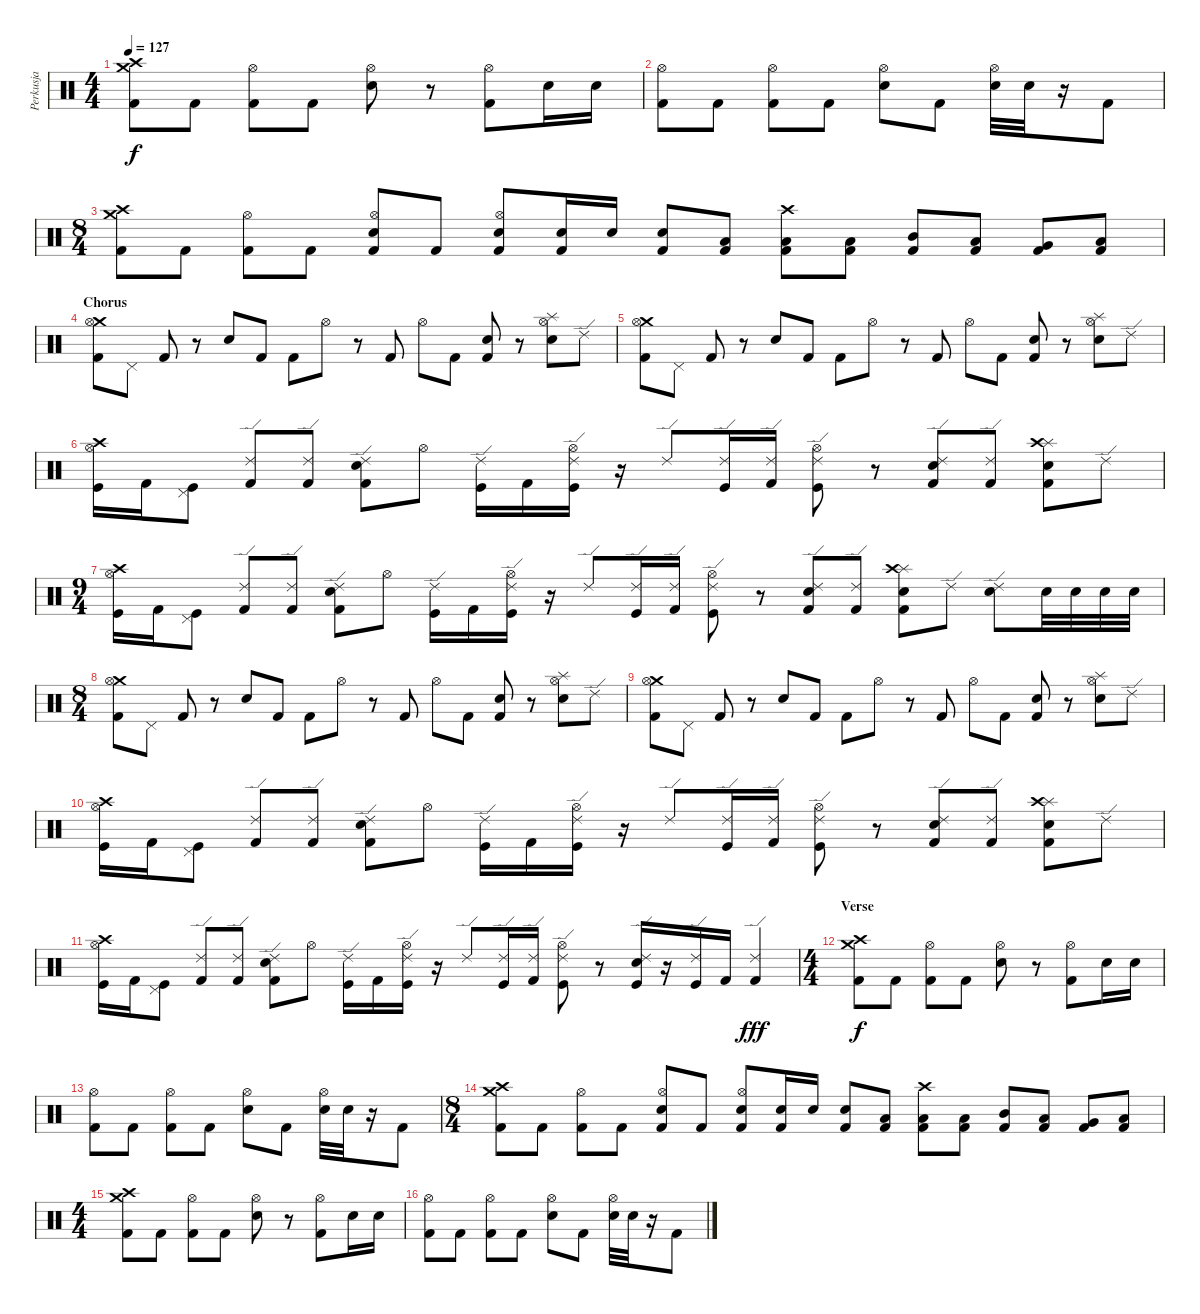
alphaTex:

\track ("Perkusja" "Perkusja") {instrument percussion}
\staff {score}
\articulation defaults
\ts (4 4)
\tempo 127
\clef neutral
\ks c
("Crash medium (hit)" "Crash high (hit)" "Kick (hit) 2").8{dy f} "Kick (hit) 2".8 ("Hi-Hat (open)" "Kick (hit) 2").8 "Kick (hit) 2".8 ("Hi-Hat (open)" "Electric Snare (hit)").8 r.8 ("Hi-Hat (open)" "Kick (hit) 2").8 "Electric Snare (hit)".16 "Electric Snare (hit)".16 |
("Hi-Hat (open)" "Kick (hit) 2").8 "Kick (hit) 2".8 ("Hi-Hat (open)" "Kick (hit) 2").8 "Kick (hit) 2".8 ("Hi-Hat (open)" "Electric Snare (hit)").8 "Kick (hit) 2".8 ("Hi-Hat (open)" "Electric Snare (hit)").32 "Electric Snare (hit)".32 r.16 "Kick (hit) 2".8 |
\ts (8 4)
("Crash medium (hit)" "Crash high (hit)" "Kick (hit) 2").8 "Kick (hit) 2".8 ("Hi-Hat (open)" "Kick (hit) 2").8 "Kick (hit) 2".8 ("Hi-Hat (open)" "Electric Snare (hit)" "Kick (hit) 2").8 "Kick (hit) 2".8 ("Hi-Hat (open)" "Electric Snare (hit)" "Kick (hit) 2").8 ("Electric Snare (hit)" "Kick (hit) 2").16 "Electric Snare (hit)".16 ("Electric Snare (hit)" "Kick (hit) 2").8 ("Low Floor Tom (hit)" "Kick (hit) 2").8 ("Crash high (hit)" "Low Floor Tom (hit)" "Kick (hit) 2").8 ("Low Floor Tom (hit)" "Kick (hit) 2").8 ("Mid Tom (hit)" "Kick (hit) 2").8 ("Low Tom (hit)" "Kick (hit) 2").8 ("Very Low Tom (hit)" "Kick (hit) 2").8 ("Low Floor Tom (hit)" "Kick (hit) 2").8 |
\section ("" "Chorus")
("Crash medium (hit)" "Hi-Hat (open)" "Kick (hit) 2").8 "Pedal Hi-Hat (hit)".8 "Kick (hit) 2".8 r.8 "Electric Snare (hit)".8 "Kick (hit) 2".8 "Kick (hit) 2".8 "Hi-Hat (open)".8 r.8 "Kick (hit) 2".8 "Hi-Hat (open)".8 "Kick (hit) 2".8 ("Electric Snare (hit)" "Kick (hit) 2").8 r.8 ("Splash (hit)" "Hi-Hat (open)" "Electric Snare (hit)").8 "Ride (edge) 2".8 |
("Crash medium (hit)" "Hi-Hat (open)" "Kick (hit) 2").8 "Pedal Hi-Hat (hit)".8 "Kick (hit) 2".8 r.8 "Electric Snare (hit)".8 "Kick (hit) 2".8 "Kick (hit) 2".8 "Hi-Hat (open)".8 r.8 "Kick (hit) 2".8 "Hi-Hat (open)".8 "Kick (hit) 2".8 ("Electric Snare (hit)" "Kick (hit) 2").8 r.8 ("Splash (hit)" "Hi-Hat (open)" "Electric Snare (hit)").8 "Ride (edge) 2".8 |
("Crash high (hit)" "Hi-Hat (open)" "Kick (hit)").16 "Kick (hit) 2".16 ("Pedal Hi-Hat (hit)" "Kick (hit)").8 ("Ride (edge) 2" "Kick (hit) 2").8 ("Ride (edge) 2" "Kick (hit) 2").8 ("Ride (edge) 2" "Electric Snare (hit)" "Kick (hit) 2").8 "Hi-Hat (open)".8 ("Ride (edge) 2" "Kick (hit)").16 "Kick (hit) 2".16 ("Ride (edge) 2" "Hi-Hat (open)" "Kick (hit)").16 r.16 "Ride (edge) 2".8 ("Ride (edge) 2" "Kick (hit)").16 ("Ride (edge) 2" "Kick (hit) 2").16 ("Ride (edge) 2" "Hi-Hat (open)" "Kick (hit)").8 r.8 ("Ride (edge) 2" "Electric Snare (hit)" "Kick (hit) 2").8 ("Ride (edge) 2" "Kick (hit) 2").8 ("Splash (hit)" "Crash high (hit)" "Electric Snare (hit)" "Kick (hit) 2").8 "Ride (edge) 2".8 |
\ts (9 4)
("Crash high (hit)" "Hi-Hat (open)" "Kick (hit)").16 "Kick (hit) 2".16 ("Pedal Hi-Hat (hit)" "Kick (hit)").8 ("Ride (edge) 2" "Kick (hit) 2").8 ("Ride (edge) 2" "Kick (hit) 2").8 ("Ride (edge) 2" "Electric Snare (hit)" "Kick (hit) 2").8 "Hi-Hat (open)".8 ("Ride (edge) 2" "Kick (hit)").16 "Kick (hit) 2".16 ("Ride (edge) 2" "Hi-Hat (open)" "Kick (hit)").16 r.16 "Ride (edge) 2".8 ("Ride (edge) 2" "Kick (hit)").16 ("Ride (edge) 2" "Kick (hit) 2").16 ("Ride (edge) 2" "Hi-Hat (open)" "Kick (hit)").8 r.8 ("Ride (edge) 2" "Electric Snare (hit)" "Kick (hit) 2").8 ("Ride (edge) 2" "Kick (hit) 2").8 ("Splash (hit)" "Crash high (hit)" "Electric Snare (hit)" "Kick (hit) 2").8 "Ride (edge) 2".8 ("Ride (edge) 2" "Electric Snare (hit)").8 "Electric Snare (hit)".32 "Electric Snare (hit)".32 "Electric Snare (hit)".32 "Electric Snare (hit)".32 |
\ts (8 4)
("Crash medium (hit)" "Hi-Hat (open)" "Kick (hit) 2").8 "Pedal Hi-Hat (hit)".8 "Kick (hit) 2".8 r.8 "Electric Snare (hit)".8 "Kick (hit) 2".8 "Kick (hit) 2".8 "Hi-Hat (open)".8 r.8 "Kick (hit) 2".8 "Hi-Hat (open)".8 "Kick (hit) 2".8 ("Electric Snare (hit)" "Kick (hit) 2").8 r.8 ("Splash (hit)" "Hi-Hat (open)" "Electric Snare (hit)").8 "Ride (edge) 2".8 |
("Crash medium (hit)" "Hi-Hat (open)" "Kick (hit) 2").8 "Pedal Hi-Hat (hit)".8 "Kick (hit) 2".8 r.8 "Electric Snare (hit)".8 "Kick (hit) 2".8 "Kick (hit) 2".8 "Hi-Hat (open)".8 r.8 "Kick (hit) 2".8 "Hi-Hat (open)".8 "Kick (hit) 2".8 ("Electric Snare (hit)" "Kick (hit) 2").8 r.8 ("Splash (hit)" "Hi-Hat (open)" "Electric Snare (hit)").8 "Ride (edge) 2".8 |
("Crash high (hit)" "Hi-Hat (open)" "Kick (hit)").16 "Kick (hit) 2".16 ("Pedal Hi-Hat (hit)" "Kick (hit)").8 ("Ride (edge) 2" "Kick (hit) 2").8 ("Ride (edge) 2" "Kick (hit) 2").8 ("Ride (edge) 2" "Electric Snare (hit)" "Kick (hit) 2").8 "Hi-Hat (open)".8 ("Ride (edge) 2" "Kick (hit)").16 "Kick (hit) 2".16 ("Ride (edge) 2" "Hi-Hat (open)" "Kick (hit)").16 r.16 "Ride (edge) 2".8 ("Ride (edge) 2" "Kick (hit)").16 ("Ride (edge) 2" "Kick (hit) 2").16 ("Ride (edge) 2" "Hi-Hat (open)" "Kick (hit)").8 r.8 ("Ride (edge) 2" "Electric Snare (hit)" "Kick (hit) 2").8 ("Ride (edge) 2" "Kick (hit) 2").8 ("Splash (hit)" "Crash high (hit)" "Electric Snare (hit)" "Kick (hit) 2").8 "Ride (edge) 2".8 |
("Crash high (hit)" "Hi-Hat (open)" "Kick (hit)").16 "Kick (hit) 2".16 ("Pedal Hi-Hat (hit)" "Kick (hit)").8 ("Ride (edge) 2" "Kick (hit) 2").8 ("Ride (edge) 2" "Kick (hit) 2").8 ("Ride (edge) 2" "Electric Snare (hit)" "Kick (hit) 2").8 "Hi-Hat (open)".8 ("Ride (edge) 2" "Kick (hit)").16 "Kick (hit) 2".16 ("Ride (edge) 2" "Hi-Hat (open)" "Kick (hit)").16 r.16 "Ride (edge) 2".8 ("Ride (edge) 2" "Kick (hit)").16 ("Ride (edge) 2" "Kick (hit) 2").16 ("Ride (edge) 2" "Hi-Hat (open)" "Kick (hit)").8 r.8 ("Ride (edge) 2" "Electric Snare (hit)" "Kick (hit)").16 r.16 ("Ride (edge) 2" "Kick (hit)").16 "Kick (hit) 2".16 ("Ride (edge) 2" "Kick (hit) 2").4{dy fff} |
\ts (4 4)
\section ("" "Verse")
("Crash medium (hit)" "Crash high (hit)" "Kick (hit) 2").8{dy f} "Kick (hit) 2".8 ("Hi-Hat (open)" "Kick (hit) 2").8 "Kick (hit) 2".8 ("Hi-Hat (open)" "Electric Snare (hit)").8 r.8 ("Hi-Hat (open)" "Kick (hit) 2").8 "Electric Snare (hit)".16 "Electric Snare (hit)".16 |
("Hi-Hat (open)" "Kick (hit) 2").8 "Kick (hit) 2".8 ("Hi-Hat (open)" "Kick (hit) 2").8 "Kick (hit) 2".8 ("Hi-Hat (open)" "Electric Snare (hit)").8 "Kick (hit) 2".8 ("Hi-Hat (open)" "Electric Snare (hit)").32 "Electric Snare (hit)".32 r.16 "Kick (hit) 2".8 |
\ts (8 4)
("Crash medium (hit)" "Crash high (hit)" "Kick (hit) 2").8 "Kick (hit) 2".8 ("Hi-Hat (open)" "Kick (hit) 2").8 "Kick (hit) 2".8 ("Hi-Hat (open)" "Electric Snare (hit)" "Kick (hit) 2").8 "Kick (hit) 2".8 ("Hi-Hat (open)" "Electric Snare (hit)" "Kick (hit) 2").8 ("Electric Snare (hit)" "Kick (hit) 2").16 "Electric Snare (hit)".16 ("Electric Snare (hit)" "Kick (hit) 2").8 ("Low Floor Tom (hit)" "Kick (hit) 2").8 ("Crash high (hit)" "Low Floor Tom (hit)" "Kick (hit) 2").8 ("Low Floor Tom (hit)" "Kick (hit) 2").8 ("Mid Tom (hit)" "Kick (hit) 2").8 ("Low Tom (hit)" "Kick (hit) 2").8 ("Very Low Tom (hit)" "Kick (hit) 2").8 ("Low Floor Tom (hit)" "Kick (hit) 2").8 |
\ts (4 4)
("Crash medium (hit)" "Crash high (hit)" "Kick (hit) 2").8 "Kick (hit) 2".8 ("Hi-Hat (open)" "Kick (hit) 2").8 "Kick (hit) 2".8 ("Hi-Hat (open)" "Electric Snare (hit)").8 r.8 ("Hi-Hat (open)" "Kick (hit) 2").8 "Electric Snare (hit)".16 "Electric Snare (hit)".16 |
("Hi-Hat (open)" "Kick (hit) 2").8 "Kick (hit) 2".8 ("Hi-Hat (open)" "Kick (hit) 2").8 "Kick (hit) 2".8 ("Hi-Hat (open)" "Electric Snare (hit)").8 "Kick (hit) 2".8 ("Hi-Hat (open)" "Electric Snare (hit)").32 "Electric Snare (hit)".32 r.16 "Kick (hit) 2".8
